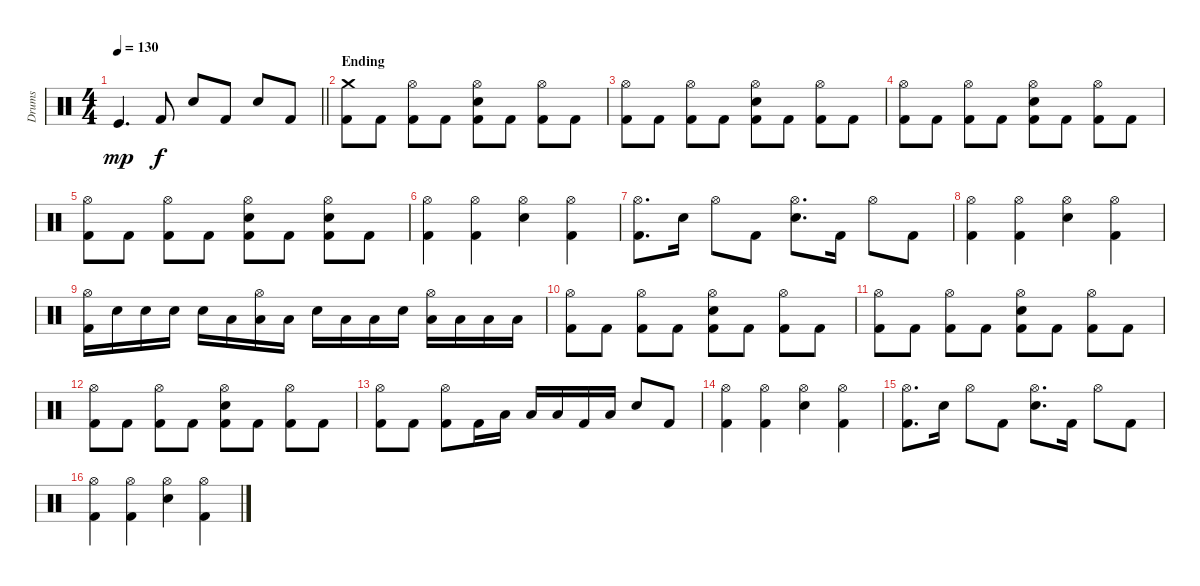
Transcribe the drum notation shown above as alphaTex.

\track ("Drums" "Drums") {instrument percussion}
\staff {score}
\articulation defaults
\ts (4 4)
\tempo 130
\clef neutral
\barLineRight lightlight
\ks c "Kick (hit)".4{d dy mp} "Kick (hit) 2".8{dy f} "Snare (hit) 2".8 "Kick (hit) 2".8 "Snare (hit) 2".8 "Kick (hit) 2".8
|
\section ("" "Ending")
("Crash medium (hit)" "Kick (hit) 2").8 "Kick (hit) 2".8 ("Hi-Hat (open)" "Kick (hit) 2").8 "Kick (hit) 2".8 ("Hi-Hat (open)" "Snare (hit) 2" "Kick (hit) 2").8 "Kick (hit) 2".8 ("Hi-Hat (open)" "Kick (hit) 2").8 "Kick (hit) 2".8 |
("Hi-Hat (open)" "Kick (hit) 2").8 "Kick (hit) 2".8 ("Hi-Hat (open)" "Kick (hit) 2").8 "Kick (hit) 2".8 ("Hi-Hat (open)" "Snare (hit) 2" "Kick (hit) 2").8 "Kick (hit) 2".8 ("Hi-Hat (open)" "Kick (hit) 2").8 "Kick (hit) 2".8 |
("Hi-Hat (open)" "Kick (hit) 2").8 "Kick (hit) 2".8 ("Hi-Hat (open)" "Kick (hit) 2").8 "Kick (hit) 2".8 ("Hi-Hat (open)" "Snare (hit) 2" "Kick (hit) 2").8 "Kick (hit) 2".8 ("Hi-Hat (open)" "Kick (hit) 2").8 "Kick (hit) 2".8 |
("Hi-Hat (open)" "Kick (hit) 2").8 "Kick (hit) 2".8 ("Hi-Hat (open)" "Kick (hit) 2").8 "Kick (hit) 2".8 ("Hi-Hat (open)" "Snare (hit) 2" "Kick (hit) 2").8 "Kick (hit) 2".8 ("Hi-Hat (open)" "Snare (hit) 2" "Kick (hit) 2").8 "Kick (hit) 2".8 |
("Hi-Hat (open)" "Kick (hit) 2").4 ("Hi-Hat (open)" "Kick (hit) 2").4 ("Hi-Hat (open)" "Snare (hit) 2").4 ("Hi-Hat (open)" "Kick (hit) 2").4 |
("Hi-Hat (open)" "Kick (hit) 2").8{d} "Snare (hit) 2".16 "Hi-Hat (open)".8 "Kick (hit) 2".8 ("Hi-Hat (open)" "Snare (hit) 2").8{d} "Kick (hit) 2".16 "Hi-Hat (open)".8 "Kick (hit) 2".8 |
("Hi-Hat (open)" "Kick (hit) 2").4 ("Hi-Hat (open)" "Kick (hit) 2").4 ("Hi-Hat (open)" "Snare (hit) 2").4 ("Hi-Hat (open)" "Kick (hit) 2").4 |
("Hi-Hat (open)" "Kick (hit) 2").16 "Snare (hit) 2".16 "Snare (hit) 2".16 "Snare (hit) 2".16 "Snare (hit) 2".16 "Low Tom (hit)".16 ("Hi-Hat (open)" "Low Floor Tom (hit)").16 "Low Floor Tom (hit)".16 "Snare (hit) 2".16 "Low Tom (hit)".16 "Low Tom (hit)".16 "Snare (hit) 2".16 ("Hi-Hat (open)" "Low Tom (hit)").16 "Low Tom (hit)".16 "Low Floor Tom (hit)".16 "Low Floor Tom (hit)".16 |
("Hi-Hat (open)" "Kick (hit) 2").8 "Kick (hit) 2".8 ("Hi-Hat (open)" "Kick (hit) 2").8 "Kick (hit) 2".8 ("Hi-Hat (open)" "Snare (hit) 2" "Kick (hit) 2").8 "Kick (hit) 2".8 ("Hi-Hat (open)" "Kick (hit) 2").8 "Kick (hit) 2".8 |
("Hi-Hat (open)" "Kick (hit) 2").8 "Kick (hit) 2".8 ("Hi-Hat (open)" "Kick (hit) 2").8 "Kick (hit) 2".8 ("Hi-Hat (open)" "Snare (hit) 2" "Kick (hit) 2").8 "Kick (hit) 2".8 ("Hi-Hat (open)" "Kick (hit) 2").8 "Kick (hit) 2".8 |
("Hi-Hat (open)" "Kick (hit) 2").8 "Kick (hit) 2".8 ("Hi-Hat (open)" "Kick (hit) 2").8 "Kick (hit) 2".8 ("Hi-Hat (open)" "Snare (hit) 2" "Kick (hit) 2").8 "Kick (hit) 2".8 ("Hi-Hat (open)" "Kick (hit) 2").8 "Kick (hit) 2".8 |
("Hi-Hat (open)" "Kick (hit) 2").8 "Kick (hit) 2".8 ("Hi-Hat (open)" "Kick (hit) 2").8 "Kick (hit) 2".16 "Low Tom (hit)".16 "Low Tom (hit)".16 "Low Floor Tom (hit)".16 "Kick (hit) 2".16 "Low Floor Tom (hit)".16 "Snare (hit) 2".8 "Kick (hit) 2".8 |
("Hi-Hat (open)" "Kick (hit) 2").4 ("Hi-Hat (open)" "Kick (hit) 2").4 ("Hi-Hat (open)" "Snare (hit) 2").4 ("Hi-Hat (open)" "Kick (hit) 2").4 |
("Hi-Hat (open)" "Kick (hit) 2").8{d} "Snare (hit) 2".16 "Hi-Hat (open)".8 "Kick (hit) 2".8 ("Hi-Hat (open)" "Snare (hit) 2").8{d} "Kick (hit) 2".16 "Hi-Hat (open)".8 "Kick (hit) 2".8 |
("Hi-Hat (open)" "Kick (hit) 2").4 ("Hi-Hat (open)" "Kick (hit) 2").4 ("Hi-Hat (open)" "Snare (hit) 2").4 ("Hi-Hat (open)" "Kick (hit) 2").4
